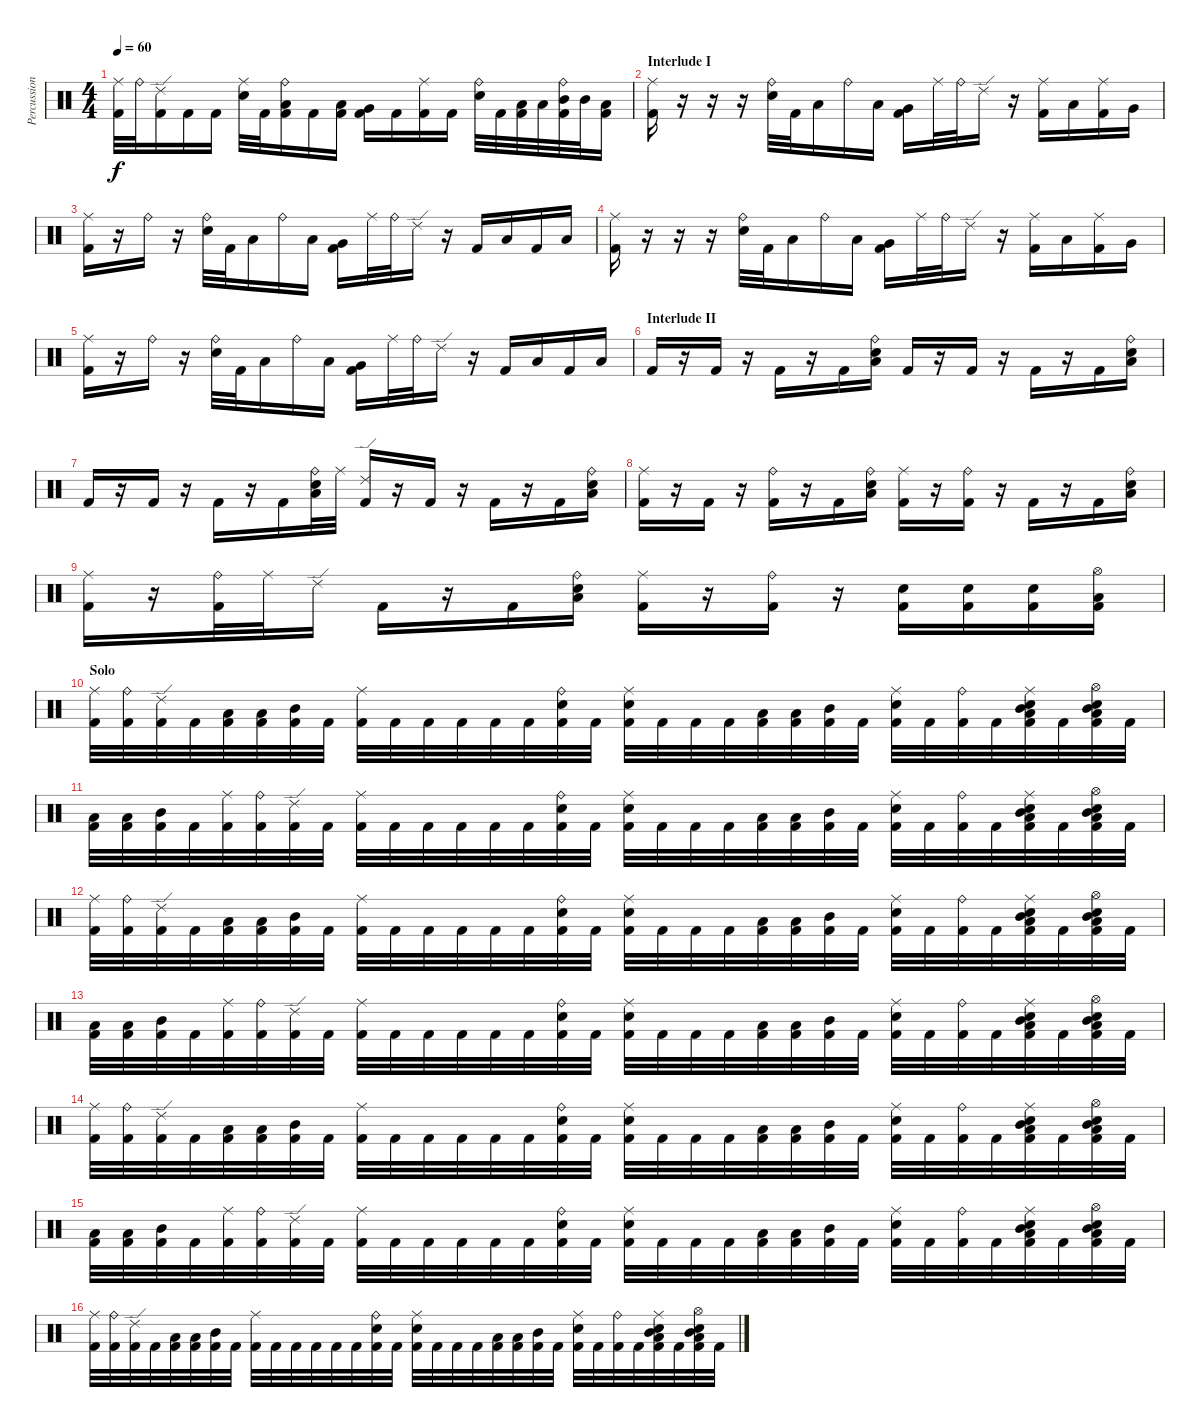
\track ("Percussion" "Percussion") {instrument percussion}
\staff {score}
\articulation defaults
\ts (4 4)
\tempo 60
\clef neutral
\ks c
("Ride (middle)" "Kick (hit) 2").32{dy f} "Ride (bell)".32 ("Ride (edge) 2" "Kick (hit) 2").16 "Kick (hit) 2".16 "Kick (hit) 2".16 ("Ride (middle)" "Electric Snare (hit)").32 "Kick (hit) 2".32 ("Ride (bell)" "Low Tom (hit)" "Kick (hit) 2").16 "Kick (hit) 2".16 ("Low Tom (hit)" "Kick (hit) 2").16 ("Very Low Tom (hit)" "Kick (hit) 2").16 "Kick (hit) 2".16 ("Ride (middle)" "Kick (hit) 2").16 "Kick (hit) 2".16 ("Ride (bell)" "Electric Snare (hit)").32 "Kick (hit) 2".32 ("Low Tom (hit)" "Kick (hit) 2").32 "Low Tom (hit)".32 ("Ride (bell)" "Mid Tom (hit)" "Kick (hit) 2").32 "Mid Tom (hit)".32 ("Low Tom (hit)" "Kick (hit) 2").16 |
\section ("" "Interlude I")
("Ride (middle)" "Kick (hit) 2").16 r.16 r.16 r.16 ("Ride (bell)" "Electric Snare (hit)").32 "Kick (hit) 2".32 "Low Tom (hit)".16 "Ride (bell)".16 "Low Tom (hit)".16 ("Very Low Tom (hit)" "Kick (hit) 2").16 "Ride (middle)".32 "Ride (bell)".32 "Ride (edge) 2".16 r.16 ("Ride (middle)" "Kick (hit) 2").16 "Low Tom (hit)".16 ("Ride (middle)" "Kick (hit) 2").16 "Very Low Tom (hit)".16 |
("Ride (middle)" "Kick (hit) 2").16 r.16 "Ride (bell)".16 r.16 ("Ride (bell)" "Electric Snare (hit)").32 "Kick (hit) 2".32 "Low Tom (hit)".16 "Ride (bell)".16 "Low Tom (hit)".16 ("Very Low Tom (hit)" "Kick (hit) 2").16 "Ride (middle)".32 "Ride (bell)".32 "Ride (edge) 2".16 r.16 "Kick (hit) 2".16 "Low Tom (hit)".16 "Kick (hit) 2".16 "Low Tom (hit)".16 |
("Ride (middle)" "Kick (hit) 2").16 r.16 r.16 r.16 ("Ride (bell)" "Electric Snare (hit)").32 "Kick (hit) 2".32 "Low Tom (hit)".16 "Ride (bell)".16 "Low Tom (hit)".16 ("Very Low Tom (hit)" "Kick (hit) 2").16 "Ride (middle)".32 "Ride (bell)".32 "Ride (edge) 2".16 r.16 ("Ride (middle)" "Kick (hit) 2").16 "Low Tom (hit)".16 ("Ride (middle)" "Kick (hit) 2").16 "Very Low Tom (hit)".16 |
("Ride (middle)" "Kick (hit) 2").16 r.16 "Ride (bell)".16 r.16 ("Ride (bell)" "Electric Snare (hit)").32 "Kick (hit) 2".32 "Low Tom (hit)".16 "Ride (bell)".16 "Low Tom (hit)".16 ("Very Low Tom (hit)" "Kick (hit) 2").16 "Ride (middle)".32 "Ride (bell)".32 "Ride (edge) 2".16 r.16 "Kick (hit) 2".16 "Low Tom (hit)".16 "Kick (hit) 2".16 "Low Tom (hit)".16 |
\section ("" "Interlude II")
"Kick (hit) 2".16 r.16 "Kick (hit) 2".16 r.16 "Kick (hit) 2".16 r.16 "Kick (hit) 2".16 ("Ride (bell)" "Low Tom (hit)" "Electric Snare (hit)").16 "Kick (hit) 2".16 r.16 "Kick (hit) 2".16 r.16 "Kick (hit) 2".16 r.16 "Kick (hit) 2".16 ("Ride (bell)" "Low Tom (hit)" "Electric Snare (hit)").16 |
"Kick (hit) 2".16 r.16 "Kick (hit) 2".16 r.16 "Kick (hit) 2".16 r.16 "Kick (hit) 2".16 ("Ride (bell)" "Low Tom (hit)" "Electric Snare (hit)").32 "Ride (middle)".32 ("Ride (edge) 2" "Kick (hit) 2").16 r.16 "Kick (hit) 2".16 r.16 "Kick (hit) 2".16 r.16 "Kick (hit) 2".16 ("Ride (bell)" "Low Tom (hit)" "Electric Snare (hit)").16 |
("Ride (middle)" "Kick (hit) 2").16 r.16 "Kick (hit) 2".16 r.16 ("Ride (bell)" "Kick (hit) 2").16 r.16 "Kick (hit) 2".16 ("Ride (bell)" "Low Tom (hit)" "Electric Snare (hit)").16 ("Ride (middle)" "Kick (hit) 2").16 r.16 ("Ride (bell)" "Kick (hit) 2").16 r.16 "Kick (hit) 2".16 r.16 "Kick (hit) 2".16 ("Ride (bell)" "Low Tom (hit)" "Electric Snare (hit)").16 |
("Ride (middle)" "Kick (hit) 2").16 r.16 ("Ride (bell)" "Kick (hit) 2").32 "Ride (middle)".32 "Ride (edge) 2".16 "Kick (hit) 2".16 r.16 "Kick (hit) 2".16 ("Ride (bell)" "Low Tom (hit)" "Electric Snare (hit)").16 ("Ride (middle)" "Kick (hit) 2").16 r.16 ("Ride (bell)" "Kick (hit) 2").16 r.16 ("Electric Snare (hit)" "Kick (hit) 2").16 ("Electric Snare (hit)" "Kick (hit) 2").16 ("Electric Snare (hit)" "Kick (hit) 2").16 ("Hi-Hat (open)" "Low Tom (hit)" "Kick (hit) 2").16 |
\section ("" "Solo")
("Ride (middle)" "Kick (hit) 2").32 ("Ride (bell)" "Kick (hit) 2").32 ("Ride (edge) 2" "Kick (hit) 2").32 "Kick (hit) 2".32 ("Low Tom (hit)" "Kick (hit) 2").32 ("Low Tom (hit)" "Kick (hit) 2").32 ("Mid Tom (hit)" "Kick (hit) 2").32 "Kick (hit) 2".32 ("Ride (middle)" "Kick (hit) 2").32 "Kick (hit) 2".32 "Kick (hit) 2".32 "Kick (hit) 2".32 "Kick (hit) 2".32 "Kick (hit) 2".32 ("Ride (bell)" "Electric Snare (hit)" "Kick (hit) 2").32 "Kick (hit) 2".32 ("Ride (middle)" "Electric Snare (hit)" "Kick (hit) 2").32 "Kick (hit) 2".32 "Kick (hit) 2".32 "Kick (hit) 2".32 ("Low Tom (hit)" "Kick (hit) 2").32 ("Low Tom (hit)" "Kick (hit) 2").32 ("Mid Tom (hit)" "Kick (hit) 2").32 "Kick (hit) 2".32 ("Ride (middle)" "Electric Snare (hit)" "Kick (hit) 2").32 "Kick (hit) 2".32 ("Ride (bell)" "Kick (hit) 2").32 "Kick (hit) 2".32 ("Ride (middle)" "Mid Tom (hit)" "Low Tom (hit)" "Electric Snare (hit)" "Kick (hit) 2").32 "Kick (hit) 2".32 ("Hi-Hat (open)" "Mid Tom (hit)" "Low Tom (hit)" "Electric Snare (hit)" "Kick (hit) 2").32 "Kick (hit) 2".32 |
("Low Tom (hit)" "Kick (hit) 2").32 ("Low Tom (hit)" "Kick (hit) 2").32 ("Mid Tom (hit)" "Kick (hit) 2").32 "Kick (hit) 2".32 ("Ride (middle)" "Kick (hit) 2").32 ("Ride (bell)" "Kick (hit) 2").32 ("Ride (edge) 2" "Kick (hit) 2").32 "Kick (hit) 2".32 ("Ride (middle)" "Kick (hit) 2").32 "Kick (hit) 2".32 "Kick (hit) 2".32 "Kick (hit) 2".32 "Kick (hit) 2".32 "Kick (hit) 2".32 ("Ride (bell)" "Electric Snare (hit)" "Kick (hit) 2").32 "Kick (hit) 2".32 ("Ride (middle)" "Electric Snare (hit)" "Kick (hit) 2").32 "Kick (hit) 2".32 "Kick (hit) 2".32 "Kick (hit) 2".32 ("Low Tom (hit)" "Kick (hit) 2").32 ("Low Tom (hit)" "Kick (hit) 2").32 ("Mid Tom (hit)" "Kick (hit) 2").32 "Kick (hit) 2".32 ("Ride (middle)" "Electric Snare (hit)" "Kick (hit) 2").32 "Kick (hit) 2".32 ("Ride (bell)" "Kick (hit) 2").32 "Kick (hit) 2".32 ("Ride (middle)" "Mid Tom (hit)" "Low Tom (hit)" "Electric Snare (hit)" "Kick (hit) 2").32 "Kick (hit) 2".32 ("Hi-Hat (open)" "Mid Tom (hit)" "Low Tom (hit)" "Electric Snare (hit)" "Kick (hit) 2").32 "Kick (hit) 2".32 |
("Ride (middle)" "Kick (hit) 2").32 ("Ride (bell)" "Kick (hit) 2").32 ("Ride (edge) 2" "Kick (hit) 2").32 "Kick (hit) 2".32 ("Low Tom (hit)" "Kick (hit) 2").32 ("Low Tom (hit)" "Kick (hit) 2").32 ("Mid Tom (hit)" "Kick (hit) 2").32 "Kick (hit) 2".32 ("Ride (middle)" "Kick (hit) 2").32 "Kick (hit) 2".32 "Kick (hit) 2".32 "Kick (hit) 2".32 "Kick (hit) 2".32 "Kick (hit) 2".32 ("Ride (bell)" "Electric Snare (hit)" "Kick (hit) 2").32 "Kick (hit) 2".32 ("Ride (middle)" "Electric Snare (hit)" "Kick (hit) 2").32 "Kick (hit) 2".32 "Kick (hit) 2".32 "Kick (hit) 2".32 ("Low Tom (hit)" "Kick (hit) 2").32 ("Low Tom (hit)" "Kick (hit) 2").32 ("Mid Tom (hit)" "Kick (hit) 2").32 "Kick (hit) 2".32 ("Ride (middle)" "Electric Snare (hit)" "Kick (hit) 2").32 "Kick (hit) 2".32 ("Ride (bell)" "Kick (hit) 2").32 "Kick (hit) 2".32 ("Ride (middle)" "Mid Tom (hit)" "Low Tom (hit)" "Electric Snare (hit)" "Kick (hit) 2").32 "Kick (hit) 2".32 ("Hi-Hat (open)" "Mid Tom (hit)" "Low Tom (hit)" "Electric Snare (hit)" "Kick (hit) 2").32 "Kick (hit) 2".32 |
("Low Tom (hit)" "Kick (hit) 2").32 ("Low Tom (hit)" "Kick (hit) 2").32 ("Mid Tom (hit)" "Kick (hit) 2").32 "Kick (hit) 2".32 ("Ride (middle)" "Kick (hit) 2").32 ("Ride (bell)" "Kick (hit) 2").32 ("Ride (edge) 2" "Kick (hit) 2").32 "Kick (hit) 2".32 ("Ride (middle)" "Kick (hit) 2").32 "Kick (hit) 2".32 "Kick (hit) 2".32 "Kick (hit) 2".32 "Kick (hit) 2".32 "Kick (hit) 2".32 ("Ride (bell)" "Electric Snare (hit)" "Kick (hit) 2").32 "Kick (hit) 2".32 ("Ride (middle)" "Electric Snare (hit)" "Kick (hit) 2").32 "Kick (hit) 2".32 "Kick (hit) 2".32 "Kick (hit) 2".32 ("Low Tom (hit)" "Kick (hit) 2").32 ("Low Tom (hit)" "Kick (hit) 2").32 ("Mid Tom (hit)" "Kick (hit) 2").32 "Kick (hit) 2".32 ("Ride (middle)" "Electric Snare (hit)" "Kick (hit) 2").32 "Kick (hit) 2".32 ("Ride (bell)" "Kick (hit) 2").32 "Kick (hit) 2".32 ("Ride (middle)" "Mid Tom (hit)" "Low Tom (hit)" "Electric Snare (hit)" "Kick (hit) 2").32 "Kick (hit) 2".32 ("Hi-Hat (open)" "Mid Tom (hit)" "Low Tom (hit)" "Electric Snare (hit)" "Kick (hit) 2").32 "Kick (hit) 2".32 |
("Ride (middle)" "Kick (hit) 2").32 ("Ride (bell)" "Kick (hit) 2").32 ("Ride (edge) 2" "Kick (hit) 2").32 "Kick (hit) 2".32 ("Low Tom (hit)" "Kick (hit) 2").32 ("Low Tom (hit)" "Kick (hit) 2").32 ("Mid Tom (hit)" "Kick (hit) 2").32 "Kick (hit) 2".32 ("Ride (middle)" "Kick (hit) 2").32 "Kick (hit) 2".32 "Kick (hit) 2".32 "Kick (hit) 2".32 "Kick (hit) 2".32 "Kick (hit) 2".32 ("Ride (bell)" "Electric Snare (hit)" "Kick (hit) 2").32 "Kick (hit) 2".32 ("Ride (middle)" "Electric Snare (hit)" "Kick (hit) 2").32 "Kick (hit) 2".32 "Kick (hit) 2".32 "Kick (hit) 2".32 ("Low Tom (hit)" "Kick (hit) 2").32 ("Low Tom (hit)" "Kick (hit) 2").32 ("Mid Tom (hit)" "Kick (hit) 2").32 "Kick (hit) 2".32 ("Ride (middle)" "Electric Snare (hit)" "Kick (hit) 2").32 "Kick (hit) 2".32 ("Ride (bell)" "Kick (hit) 2").32 "Kick (hit) 2".32 ("Ride (middle)" "Mid Tom (hit)" "Low Tom (hit)" "Electric Snare (hit)" "Kick (hit) 2").32 "Kick (hit) 2".32 ("Hi-Hat (open)" "Mid Tom (hit)" "Low Tom (hit)" "Electric Snare (hit)" "Kick (hit) 2").32 "Kick (hit) 2".32 |
("Low Tom (hit)" "Kick (hit) 2").32 ("Low Tom (hit)" "Kick (hit) 2").32 ("Mid Tom (hit)" "Kick (hit) 2").32 "Kick (hit) 2".32 ("Ride (middle)" "Kick (hit) 2").32 ("Ride (bell)" "Kick (hit) 2").32 ("Ride (edge) 2" "Kick (hit) 2").32 "Kick (hit) 2".32 ("Ride (middle)" "Kick (hit) 2").32 "Kick (hit) 2".32 "Kick (hit) 2".32 "Kick (hit) 2".32 "Kick (hit) 2".32 "Kick (hit) 2".32 ("Ride (bell)" "Electric Snare (hit)" "Kick (hit) 2").32 "Kick (hit) 2".32 ("Ride (middle)" "Electric Snare (hit)" "Kick (hit) 2").32 "Kick (hit) 2".32 "Kick (hit) 2".32 "Kick (hit) 2".32 ("Low Tom (hit)" "Kick (hit) 2").32 ("Low Tom (hit)" "Kick (hit) 2").32 ("Mid Tom (hit)" "Kick (hit) 2").32 "Kick (hit) 2".32 ("Ride (middle)" "Electric Snare (hit)" "Kick (hit) 2").32 "Kick (hit) 2".32 ("Ride (bell)" "Kick (hit) 2").32 "Kick (hit) 2".32 ("Ride (middle)" "Mid Tom (hit)" "Low Tom (hit)" "Electric Snare (hit)" "Kick (hit) 2").32 "Kick (hit) 2".32 ("Hi-Hat (open)" "Mid Tom (hit)" "Low Tom (hit)" "Electric Snare (hit)" "Kick (hit) 2").32 "Kick (hit) 2".32 |
("Ride (middle)" "Kick (hit) 2").32 ("Ride (bell)" "Kick (hit) 2").32 ("Ride (edge) 2" "Kick (hit) 2").32 "Kick (hit) 2".32 ("Low Tom (hit)" "Kick (hit) 2").32 ("Low Tom (hit)" "Kick (hit) 2").32 ("Mid Tom (hit)" "Kick (hit) 2").32 "Kick (hit) 2".32 ("Ride (middle)" "Kick (hit) 2").32 "Kick (hit) 2".32 "Kick (hit) 2".32 "Kick (hit) 2".32 "Kick (hit) 2".32 "Kick (hit) 2".32 ("Ride (bell)" "Electric Snare (hit)" "Kick (hit) 2").32 "Kick (hit) 2".32 ("Ride (middle)" "Electric Snare (hit)" "Kick (hit) 2").32 "Kick (hit) 2".32 "Kick (hit) 2".32 "Kick (hit) 2".32 ("Low Tom (hit)" "Kick (hit) 2").32 ("Low Tom (hit)" "Kick (hit) 2").32 ("Mid Tom (hit)" "Kick (hit) 2").32 "Kick (hit) 2".32 ("Ride (middle)" "Electric Snare (hit)" "Kick (hit) 2").32 "Kick (hit) 2".32 ("Ride (bell)" "Kick (hit) 2").32 "Kick (hit) 2".32 ("Ride (middle)" "Mid Tom (hit)" "Low Tom (hit)" "Electric Snare (hit)" "Kick (hit) 2").32 "Kick (hit) 2".32 ("Hi-Hat (open)" "Mid Tom (hit)" "Low Tom (hit)" "Electric Snare (hit)" "Kick (hit) 2").32 "Kick (hit) 2".32
